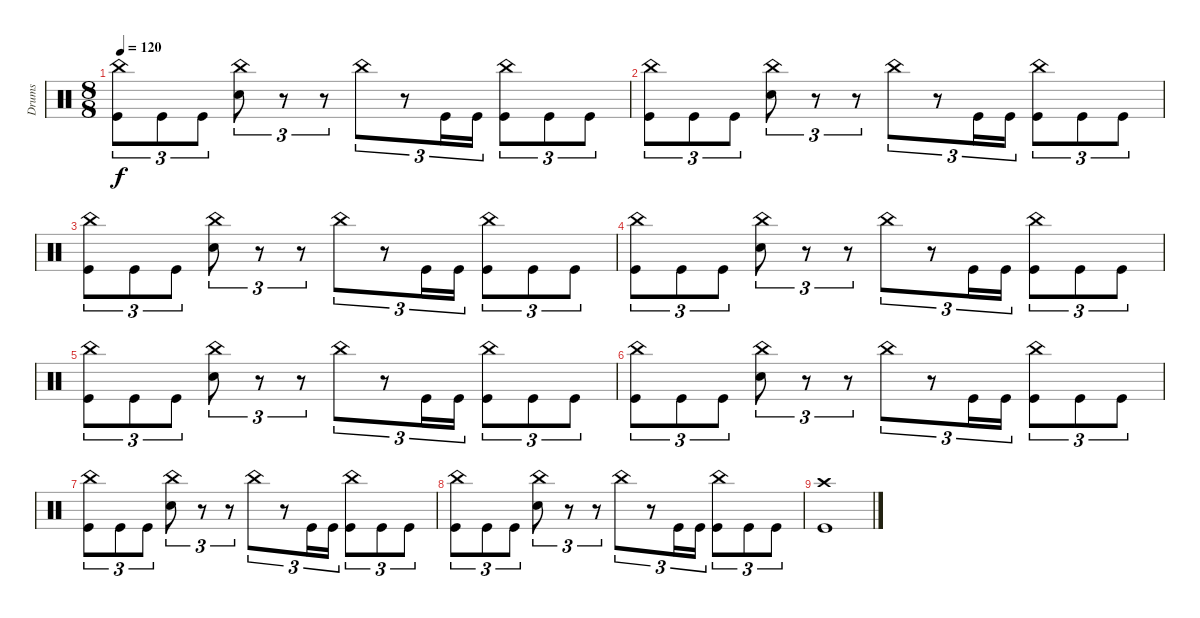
\track ("Drums" "Drums") {instrument percussion}
\staff {score}
\articulation defaults
\ts (8 8)
\tempo 120
\clef neutral
\ks c
("China (hit)" "Kick (hit)").8{tu (3 2) dy f} "Kick (hit)".8{tu (3 2)} "Kick (hit)".8{tu (3 2)} ("China (hit)" "Electric Snare (hit)").8{tu (3 2)} r.8{tu (3 2)} r.8{tu (3 2)} "China (hit)".8{tu (3 2)} r.8{tu (3 2)} "Kick (hit)".16{tu (3 2)} "Kick (hit)".16{tu (3 2)} ("China (hit)" "Kick (hit)").8{tu (3 2)} "Kick (hit)".8{tu (3 2)} "Kick (hit)".8{tu (3 2)} |
("China (hit)" "Kick (hit)").8{tu (3 2)} "Kick (hit)".8{tu (3 2)} "Kick (hit)".8{tu (3 2)} ("China (hit)" "Electric Snare (hit)").8{tu (3 2)} r.8{tu (3 2)} r.8{tu (3 2)} "China (hit)".8{tu (3 2)} r.8{tu (3 2)} "Kick (hit)".16{tu (3 2)} "Kick (hit)".16{tu (3 2)} ("China (hit)" "Kick (hit)").8{tu (3 2)} "Kick (hit)".8{tu (3 2)} "Kick (hit)".8{tu (3 2)} |
("China (hit)" "Kick (hit)").8{tu (3 2)} "Kick (hit)".8{tu (3 2)} "Kick (hit)".8{tu (3 2)} ("China (hit)" "Electric Snare (hit)").8{tu (3 2)} r.8{tu (3 2)} r.8{tu (3 2)} "China (hit)".8{tu (3 2)} r.8{tu (3 2)} "Kick (hit)".16{tu (3 2)} "Kick (hit)".16{tu (3 2)} ("China (hit)" "Kick (hit)").8{tu (3 2)} "Kick (hit)".8{tu (3 2)} "Kick (hit)".8{tu (3 2)} |
("China (hit)" "Kick (hit)").8{tu (3 2)} "Kick (hit)".8{tu (3 2)} "Kick (hit)".8{tu (3 2)} ("China (hit)" "Electric Snare (hit)").8{tu (3 2)} r.8{tu (3 2)} r.8{tu (3 2)} "China (hit)".8{tu (3 2)} r.8{tu (3 2)} "Kick (hit)".16{tu (3 2)} "Kick (hit)".16{tu (3 2)} ("China (hit)" "Kick (hit)").8{tu (3 2)} "Kick (hit)".8{tu (3 2)} "Kick (hit)".8{tu (3 2)} |
("China (hit)" "Kick (hit)").8{tu (3 2)} "Kick (hit)".8{tu (3 2)} "Kick (hit)".8{tu (3 2)} ("China (hit)" "Electric Snare (hit)").8{tu (3 2)} r.8{tu (3 2)} r.8{tu (3 2)} "China (hit)".8{tu (3 2)} r.8{tu (3 2)} "Kick (hit)".16{tu (3 2)} "Kick (hit)".16{tu (3 2)} ("China (hit)" "Kick (hit)").8{tu (3 2)} "Kick (hit)".8{tu (3 2)} "Kick (hit)".8{tu (3 2)} |
("China (hit)" "Kick (hit)").8{tu (3 2)} "Kick (hit)".8{tu (3 2)} "Kick (hit)".8{tu (3 2)} ("China (hit)" "Electric Snare (hit)").8{tu (3 2)} r.8{tu (3 2)} r.8{tu (3 2)} "China (hit)".8{tu (3 2)} r.8{tu (3 2)} "Kick (hit)".16{tu (3 2)} "Kick (hit)".16{tu (3 2)} ("China (hit)" "Kick (hit)").8{tu (3 2)} "Kick (hit)".8{tu (3 2)} "Kick (hit)".8{tu (3 2)} |
("China (hit)" "Kick (hit)").8{tu (3 2)} "Kick (hit)".8{tu (3 2)} "Kick (hit)".8{tu (3 2)} ("China (hit)" "Electric Snare (hit)").8{tu (3 2)} r.8{tu (3 2)} r.8{tu (3 2)} "China (hit)".8{tu (3 2)} r.8{tu (3 2)} "Kick (hit)".16{tu (3 2)} "Kick (hit)".16{tu (3 2)} ("China (hit)" "Kick (hit)").8{tu (3 2)} "Kick (hit)".8{tu (3 2)} "Kick (hit)".8{tu (3 2)} |
("China (hit)" "Kick (hit)").8{tu (3 2)} "Kick (hit)".8{tu (3 2)} "Kick (hit)".8{tu (3 2)} ("China (hit)" "Electric Snare (hit)").8{tu (3 2)} r.8{tu (3 2)} r.8{tu (3 2)} "China (hit)".8{tu (3 2)} r.8{tu (3 2)} "Kick (hit)".16{tu (3 2)} "Kick (hit)".16{tu (3 2)} ("China (hit)" "Kick (hit)").8{tu (3 2)} "Kick (hit)".8{tu (3 2)} "Kick (hit)".8{tu (3 2)} |
("Crash high (hit)" "Kick (hit)").1
